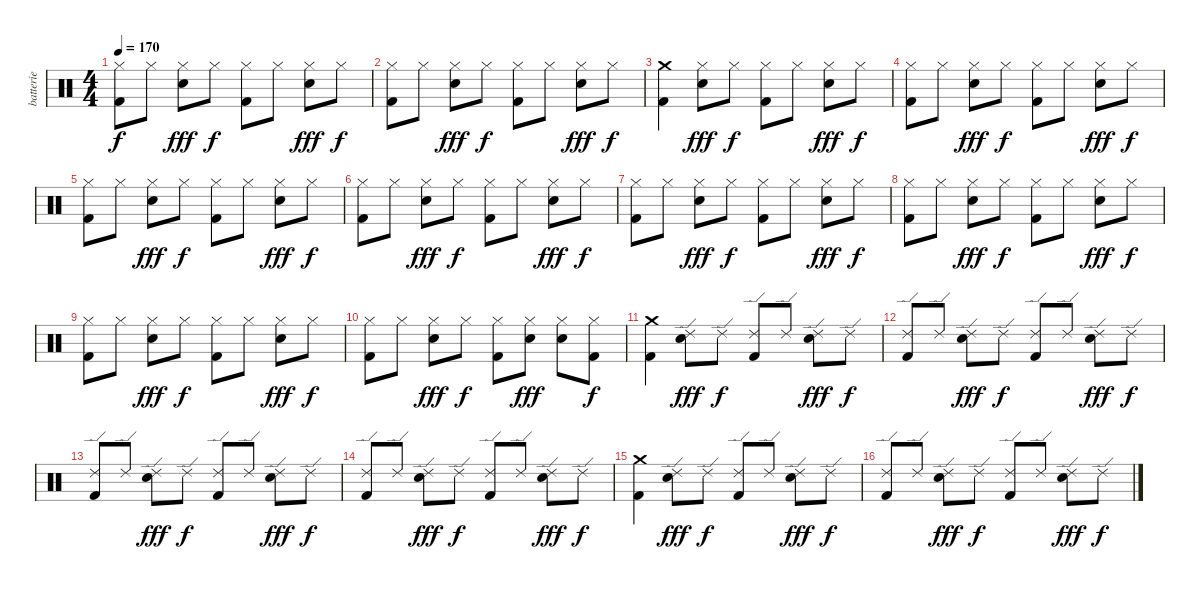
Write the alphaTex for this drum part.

\track ("batterie" "batterie") {instrument percussion}
\staff {score}
\articulation defaults
\ts (4 4)
\tempo 170
\clef neutral
\ks c
("Hi-Hat (closed)" "Kick (hit) 2").8{dy f} "Hi-Hat (closed)".8 ("Hi-Hat (closed)" "Electric Snare (hit)").8{dy fff} "Hi-Hat (closed)".8{dy f} ("Hi-Hat (closed)" "Kick (hit) 2").8 "Hi-Hat (closed)".8 ("Hi-Hat (closed)" "Electric Snare (hit)").8{dy fff} "Hi-Hat (closed)".8{dy f} |
("Hi-Hat (closed)" "Kick (hit) 2").8 "Hi-Hat (closed)".8 ("Hi-Hat (closed)" "Electric Snare (hit)").8{dy fff} "Hi-Hat (closed)".8{dy f} ("Hi-Hat (closed)" "Kick (hit) 2").8 "Hi-Hat (closed)".8 ("Hi-Hat (closed)" "Electric Snare (hit)").8{dy fff} "Hi-Hat (closed)".8{dy f} |
("Crash medium (hit)" "Kick (hit) 2").4 ("Hi-Hat (closed)" "Electric Snare (hit)").8{dy fff} "Hi-Hat (closed)".8{dy f} ("Hi-Hat (closed)" "Kick (hit) 2").8 "Hi-Hat (closed)".8 ("Hi-Hat (closed)" "Electric Snare (hit)").8{dy fff} "Hi-Hat (closed)".8{dy f} |
("Hi-Hat (closed)" "Kick (hit) 2").8 "Hi-Hat (closed)".8 ("Hi-Hat (closed)" "Electric Snare (hit)").8{dy fff} "Hi-Hat (closed)".8{dy f} ("Hi-Hat (closed)" "Kick (hit) 2").8 "Hi-Hat (closed)".8 ("Hi-Hat (closed)" "Electric Snare (hit)").8{dy fff} "Hi-Hat (closed)".8{dy f} |
("Hi-Hat (closed)" "Kick (hit) 2").8 "Hi-Hat (closed)".8 ("Hi-Hat (closed)" "Electric Snare (hit)").8{dy fff} "Hi-Hat (closed)".8{dy f} ("Hi-Hat (closed)" "Kick (hit) 2").8 "Hi-Hat (closed)".8 ("Hi-Hat (closed)" "Electric Snare (hit)").8{dy fff} "Hi-Hat (closed)".8{dy f} |
("Hi-Hat (closed)" "Kick (hit) 2").8 "Hi-Hat (closed)".8 ("Hi-Hat (closed)" "Electric Snare (hit)").8{dy fff} "Hi-Hat (closed)".8{dy f} ("Hi-Hat (closed)" "Kick (hit) 2").8 "Hi-Hat (closed)".8 ("Hi-Hat (closed)" "Electric Snare (hit)").8{dy fff} "Hi-Hat (closed)".8{dy f} |
("Hi-Hat (closed)" "Kick (hit) 2").8 "Hi-Hat (closed)".8 ("Hi-Hat (closed)" "Electric Snare (hit)").8{dy fff} "Hi-Hat (closed)".8{dy f} ("Hi-Hat (closed)" "Kick (hit) 2").8 "Hi-Hat (closed)".8 ("Hi-Hat (closed)" "Electric Snare (hit)").8{dy fff} "Hi-Hat (closed)".8{dy f} |
("Hi-Hat (closed)" "Kick (hit) 2").8 "Hi-Hat (closed)".8 ("Hi-Hat (closed)" "Electric Snare (hit)").8{dy fff} "Hi-Hat (closed)".8{dy f} ("Hi-Hat (closed)" "Kick (hit) 2").8 "Hi-Hat (closed)".8 ("Hi-Hat (closed)" "Electric Snare (hit)").8{dy fff} "Hi-Hat (closed)".8{dy f} |
("Hi-Hat (closed)" "Kick (hit) 2").8 "Hi-Hat (closed)".8 ("Hi-Hat (closed)" "Electric Snare (hit)").8{dy fff} "Hi-Hat (closed)".8{dy f} ("Hi-Hat (closed)" "Kick (hit) 2").8 "Hi-Hat (closed)".8 ("Hi-Hat (closed)" "Electric Snare (hit)").8{dy fff} "Hi-Hat (closed)".8{dy f} |
("Hi-Hat (closed)" "Kick (hit) 2").8 "Hi-Hat (closed)".8 ("Hi-Hat (closed)" "Electric Snare (hit)").8{dy fff} "Hi-Hat (closed)".8{dy f} ("Hi-Hat (closed)" "Kick (hit) 2").8 ("Hi-Hat (closed)" "Electric Snare (hit)").8{dy fff} ("Hi-Hat (closed)" "Electric Snare (hit)").8 ("Hi-Hat (closed)" "Kick (hit) 2").8{dy f} |
("Crash medium (hit)" "Kick (hit) 2").4 ("Ride (edge) 2" "Electric Snare (hit)").8{dy fff} "Ride (edge) 2".8{dy f} ("Ride (edge) 2" "Kick (hit) 2").8 "Ride (edge) 2".8 ("Ride (edge) 2" "Electric Snare (hit)").8{dy fff} "Ride (edge) 2".8{dy f} |
("Ride (edge) 2" "Kick (hit) 2").8 "Ride (edge) 2".8 ("Ride (edge) 2" "Electric Snare (hit)").8{dy fff} "Ride (edge) 2".8{dy f} ("Ride (edge) 2" "Kick (hit) 2").8 "Ride (edge) 2".8 ("Ride (edge) 2" "Electric Snare (hit)").8{dy fff} "Ride (edge) 2".8{dy f} |
("Ride (edge) 2" "Kick (hit) 2").8 "Ride (edge) 2".8 ("Ride (edge) 2" "Electric Snare (hit)").8{dy fff} "Ride (edge) 2".8{dy f} ("Ride (edge) 2" "Kick (hit) 2").8 "Ride (edge) 2".8 ("Ride (edge) 2" "Electric Snare (hit)").8{dy fff} "Ride (edge) 2".8{dy f} |
("Ride (edge) 2" "Kick (hit) 2").8 "Ride (edge) 2".8 ("Ride (edge) 2" "Electric Snare (hit)").8{dy fff} "Ride (edge) 2".8{dy f} ("Ride (edge) 2" "Kick (hit) 2").8 "Ride (edge) 2".8 ("Ride (edge) 2" "Electric Snare (hit)").8{dy fff} "Ride (edge) 2".8{dy f} |
("Crash medium (hit)" "Kick (hit) 2").4 ("Ride (edge) 2" "Electric Snare (hit)").8{dy fff} "Ride (edge) 2".8{dy f} ("Ride (edge) 2" "Kick (hit) 2").8 "Ride (edge) 2".8 ("Ride (edge) 2" "Electric Snare (hit)").8{dy fff} "Ride (edge) 2".8{dy f} |
("Ride (edge) 2" "Kick (hit) 2").8 "Ride (edge) 2".8 ("Ride (edge) 2" "Electric Snare (hit)").8{dy fff} "Ride (edge) 2".8{dy f} ("Ride (edge) 2" "Kick (hit) 2").8 "Ride (edge) 2".8 ("Ride (edge) 2" "Electric Snare (hit)").8{dy fff} "Ride (edge) 2".8{dy f}
